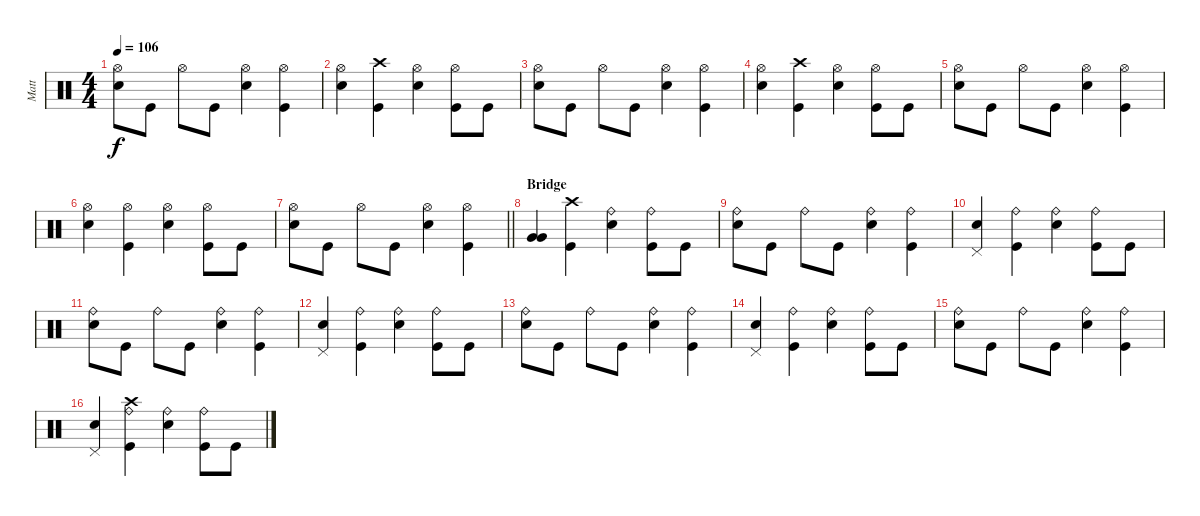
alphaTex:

\track ("Matt" "Matt") {instrument percussion}
\staff {score}
\articulation defaults
\ts (4 4)
\tempo 106
\clef neutral
\ks c
("Electric Snare (hit)" "Hi-Hat (open)").8{dy f} "Kick (hit)".8 "Hi-Hat (open)".8 "Kick (hit)".8 ("Electric Snare (hit)" "Hi-Hat (open)").4 ("Hi-Hat (open)" "Kick (hit)").4 |
("Electric Snare (hit)" "Hi-Hat (open)").4 ("Crash high (hit)" "Kick (hit)").4 ("Electric Snare (hit)" "Hi-Hat (open)").4 ("Hi-Hat (open)" "Kick (hit)").8 "Kick (hit)".8 |
("Electric Snare (hit)" "Hi-Hat (open)").8 "Kick (hit)".8 "Hi-Hat (open)".8 "Kick (hit)".8 ("Electric Snare (hit)" "Hi-Hat (open)").4 ("Hi-Hat (open)" "Kick (hit)").4 |
("Electric Snare (hit)" "Hi-Hat (open)").4 ("Crash high (hit)" "Kick (hit)").4 ("Electric Snare (hit)" "Hi-Hat (open)").4 ("Hi-Hat (open)" "Kick (hit)").8 "Kick (hit)".8 |
("Electric Snare (hit)" "Hi-Hat (open)").8 "Kick (hit)".8 "Hi-Hat (open)".8 "Kick (hit)".8 ("Electric Snare (hit)" "Hi-Hat (open)").4 ("Hi-Hat (open)" "Kick (hit)").4 |
("Electric Snare (hit)" "Hi-Hat (open)").4 ("Hi-Hat (open)" "Kick (hit)").4 ("Electric Snare (hit)" "Hi-Hat (open)").4 ("Hi-Hat (open)" "Kick (hit)").8 "Kick (hit)".8 |
\barLineRight lightlight
("Electric Snare (hit)" "Hi-Hat (open)").8 "Kick (hit)".8 "Hi-Hat (open)".8 "Kick (hit)".8 ("Electric Snare (hit)" "Hi-Hat (open)").4 ("Hi-Hat (open)" "Kick (hit)").4 |
\section ("" "Bridge")
("Very Low Tom (hit)" "Very Low Tom (hit)").4 ("Crash high (hit)" "Kick (hit)").4 ("Electric Snare (hit)" "Ride (bell)").4 ("Ride (bell)" "Kick (hit)").8 "Kick (hit)".8 |
("Electric Snare (hit)" "Ride (bell)").8 "Kick (hit)".8 "Ride (bell)".8 "Kick (hit)".8 ("Electric Snare (hit)" "Ride (bell)").4 ("Ride (bell)" "Kick (hit)").4 |
("Electric Snare (hit)" "Pedal Hi-Hat (hit)").4 ("Ride (bell)" "Kick (hit)").4 ("Electric Snare (hit)" "Ride (bell)").4 ("Ride (bell)" "Kick (hit)").8 "Kick (hit)".8 |
("Electric Snare (hit)" "Ride (bell)").8 "Kick (hit)".8 "Ride (bell)".8 "Kick (hit)".8 ("Electric Snare (hit)" "Ride (bell)").4 ("Ride (bell)" "Kick (hit)").4 |
("Electric Snare (hit)" "Pedal Hi-Hat (hit)").4 ("Ride (bell)" "Kick (hit)").4 ("Electric Snare (hit)" "Ride (bell)").4 ("Ride (bell)" "Kick (hit)").8 "Kick (hit)".8 |
("Electric Snare (hit)" "Ride (bell)").8 "Kick (hit)".8 "Ride (bell)".8 "Kick (hit)".8 ("Electric Snare (hit)" "Ride (bell)").4 ("Ride (bell)" "Kick (hit)").4 |
("Electric Snare (hit)" "Pedal Hi-Hat (hit)").4 ("Ride (bell)" "Kick (hit)").4 ("Electric Snare (hit)" "Ride (bell)").4 ("Ride (bell)" "Kick (hit)").8 "Kick (hit)".8 |
("Electric Snare (hit)" "Ride (bell)").8 "Kick (hit)".8 "Ride (bell)".8 "Kick (hit)".8 ("Electric Snare (hit)" "Ride (bell)").4 ("Ride (bell)" "Kick (hit)").4 |
("Electric Snare (hit)" "Pedal Hi-Hat (hit)").4 ("Crash high (hit)" "Ride (bell)" "Kick (hit)").4 ("Electric Snare (hit)" "Ride (bell)").4 ("Ride (bell)" "Kick (hit)").8 "Kick (hit)".8
